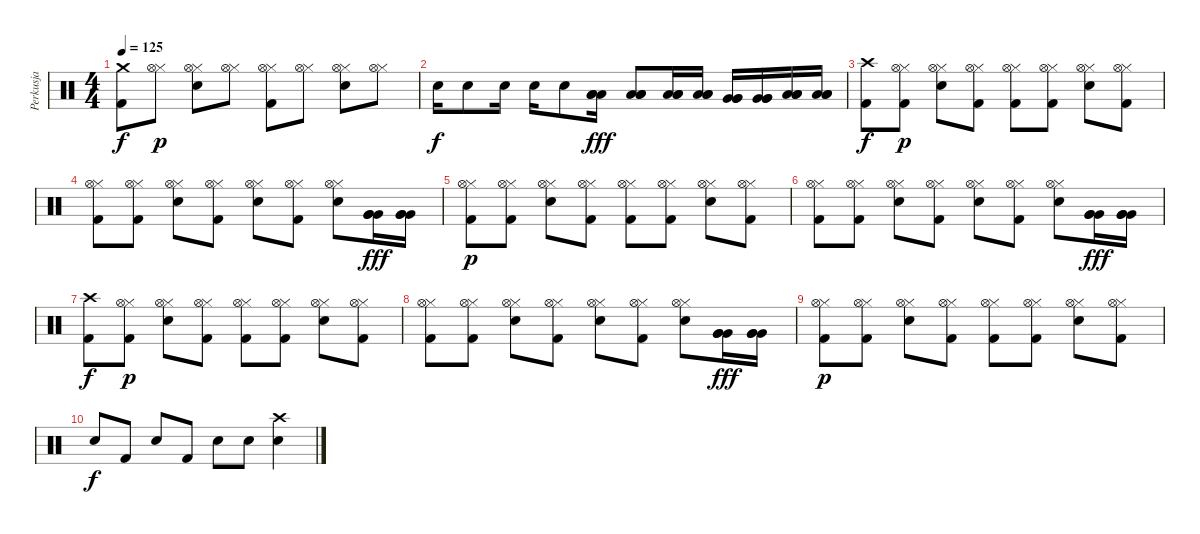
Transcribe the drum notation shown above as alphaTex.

\track ("Perkusja" "Perkusja") {instrument percussion}
\staff {score}
\articulation defaults
\ts (4 4)
\tempo 125
\clef neutral
\ks c
("Kick (hit) 2" "Crash medium (hit)").8{dy f} ("Hi-Hat (closed)" "Hi-Hat (open)").8{dy p} ("Electric Snare (hit)" "Hi-Hat (closed)" "Hi-Hat (open)").8 ("Hi-Hat (closed)" "Hi-Hat (open)").8 ("Kick (hit) 2" "Hi-Hat (closed)" "Hi-Hat (open)").8 ("Hi-Hat (closed)" "Hi-Hat (open)").8 ("Electric Snare (hit)" "Hi-Hat (closed)" "Hi-Hat (open)").8 ("Hi-Hat (closed)" "Hi-Hat (open)").8 |
"Electric Snare (hit)".16{dy f} "Electric Snare (hit)".8 "Electric Snare (hit)".16 "Electric Snare (hit)".16 "Electric Snare (hit)".8 ("Low Tom (hit)" "Low Tom (hit)" "Low Tom (hit)").16{dy fff} ("Low Tom (hit)" "Low Tom (hit)" "Low Tom (hit)").8 ("Low Tom (hit)" "Low Tom (hit)" "Low Tom (hit)").16 ("Low Tom (hit)" "Low Tom (hit)" "Low Tom (hit)").16 ("Very Low Tom (hit)" "Very Low Tom (hit)" "Very Low Tom (hit)").16 ("Very Low Tom (hit)" "Very Low Tom (hit)" "Very Low Tom (hit)").16 ("Low Floor Tom (hit)" "Low Floor Tom (hit)" "Low Floor Tom (hit)").16 ("Low Floor Tom (hit)" "Low Floor Tom (hit)" "Low Floor Tom (hit)").16 |
("Kick (hit) 2" "Crash high (hit)").8{dy f} ("Kick (hit) 2" "Hi-Hat (closed)" "Hi-Hat (open)").8{dy p} ("Electric Snare (hit)" "Hi-Hat (closed)" "Hi-Hat (open)").8 ("Kick (hit) 2" "Hi-Hat (closed)" "Hi-Hat (open)").8 ("Kick (hit) 2" "Hi-Hat (closed)" "Hi-Hat (open)").8 ("Kick (hit) 2" "Hi-Hat (closed)" "Hi-Hat (open)").8 ("Electric Snare (hit)" "Hi-Hat (closed)" "Hi-Hat (open)").8 ("Kick (hit) 2" "Hi-Hat (closed)" "Hi-Hat (open)").8 |
("Kick (hit) 2" "Hi-Hat (closed)" "Hi-Hat (open)").8 ("Kick (hit) 2" "Hi-Hat (closed)" "Hi-Hat (open)").8 ("Electric Snare (hit)" "Hi-Hat (closed)" "Hi-Hat (open)").8 ("Kick (hit) 2" "Hi-Hat (closed)" "Hi-Hat (open)").8 ("Electric Snare (hit)" "Hi-Hat (closed)" "Hi-Hat (open)").8 ("Kick (hit) 2" "Hi-Hat (closed)" "Hi-Hat (open)").8 ("Electric Snare (hit)" "Hi-Hat (closed)" "Hi-Hat (open)").8 ("Very Low Tom (hit)" "Very Low Tom (hit)" "Very Low Tom (hit)").16{dy fff} ("Very Low Tom (hit)" "Very Low Tom (hit)" "Very Low Tom (hit)").16 |
("Kick (hit) 2" "Hi-Hat (closed)" "Hi-Hat (open)").8{dy p} ("Kick (hit) 2" "Hi-Hat (closed)" "Hi-Hat (open)").8 ("Electric Snare (hit)" "Hi-Hat (closed)" "Hi-Hat (open)").8 ("Kick (hit) 2" "Hi-Hat (closed)" "Hi-Hat (open)").8 ("Kick (hit) 2" "Hi-Hat (closed)" "Hi-Hat (open)").8 ("Kick (hit) 2" "Hi-Hat (closed)" "Hi-Hat (open)").8 ("Electric Snare (hit)" "Hi-Hat (closed)" "Hi-Hat (open)").8 ("Kick (hit) 2" "Hi-Hat (closed)" "Hi-Hat (open)").8 |
("Kick (hit) 2" "Hi-Hat (closed)" "Hi-Hat (open)").8 ("Kick (hit) 2" "Hi-Hat (closed)" "Hi-Hat (open)").8 ("Electric Snare (hit)" "Hi-Hat (closed)" "Hi-Hat (open)").8 ("Kick (hit) 2" "Hi-Hat (closed)" "Hi-Hat (open)").8 ("Electric Snare (hit)" "Hi-Hat (closed)" "Hi-Hat (open)").8 ("Kick (hit) 2" "Hi-Hat (closed)" "Hi-Hat (open)").8 ("Electric Snare (hit)" "Hi-Hat (closed)" "Hi-Hat (open)").8 ("Very Low Tom (hit)" "Very Low Tom (hit)" "Very Low Tom (hit)").16{dy fff} ("Very Low Tom (hit)" "Very Low Tom (hit)" "Very Low Tom (hit)").16 |
("Kick (hit) 2" "Crash high (hit)").8{dy f} ("Kick (hit) 2" "Hi-Hat (closed)" "Hi-Hat (open)").8{dy p} ("Electric Snare (hit)" "Hi-Hat (closed)" "Hi-Hat (open)").8 ("Kick (hit) 2" "Hi-Hat (closed)" "Hi-Hat (open)").8 ("Kick (hit) 2" "Hi-Hat (closed)" "Hi-Hat (open)").8 ("Kick (hit) 2" "Hi-Hat (closed)" "Hi-Hat (open)").8 ("Electric Snare (hit)" "Hi-Hat (closed)" "Hi-Hat (open)").8 ("Kick (hit) 2" "Hi-Hat (closed)" "Hi-Hat (open)").8 |
("Kick (hit) 2" "Hi-Hat (closed)" "Hi-Hat (open)").8 ("Kick (hit) 2" "Hi-Hat (closed)" "Hi-Hat (open)").8 ("Electric Snare (hit)" "Hi-Hat (closed)" "Hi-Hat (open)").8 ("Kick (hit) 2" "Hi-Hat (closed)" "Hi-Hat (open)").8 ("Electric Snare (hit)" "Hi-Hat (closed)" "Hi-Hat (open)").8 ("Kick (hit) 2" "Hi-Hat (closed)" "Hi-Hat (open)").8 ("Electric Snare (hit)" "Hi-Hat (closed)" "Hi-Hat (open)").8 ("Very Low Tom (hit)" "Very Low Tom (hit)" "Very Low Tom (hit)").16{dy fff} ("Very Low Tom (hit)" "Very Low Tom (hit)" "Very Low Tom (hit)").16 |
("Kick (hit) 2" "Hi-Hat (closed)" "Hi-Hat (open)").8{dy p} ("Kick (hit) 2" "Hi-Hat (closed)" "Hi-Hat (open)").8 ("Electric Snare (hit)" "Hi-Hat (closed)" "Hi-Hat (open)").8 ("Kick (hit) 2" "Hi-Hat (closed)" "Hi-Hat (open)").8 ("Kick (hit) 2" "Hi-Hat (closed)" "Hi-Hat (open)").8 ("Kick (hit) 2" "Hi-Hat (closed)" "Hi-Hat (open)").8 ("Electric Snare (hit)" "Hi-Hat (closed)" "Hi-Hat (open)").8 ("Kick (hit) 2" "Hi-Hat (closed)" "Hi-Hat (open)").8 |
"Electric Snare (hit)".8{dy f} "Kick (hit) 2".8 "Electric Snare (hit)".8 "Kick (hit) 2".8 "Electric Snare (hit)".8 "Electric Snare (hit)".8 ("Electric Snare (hit)" "Crash high (hit)").4
